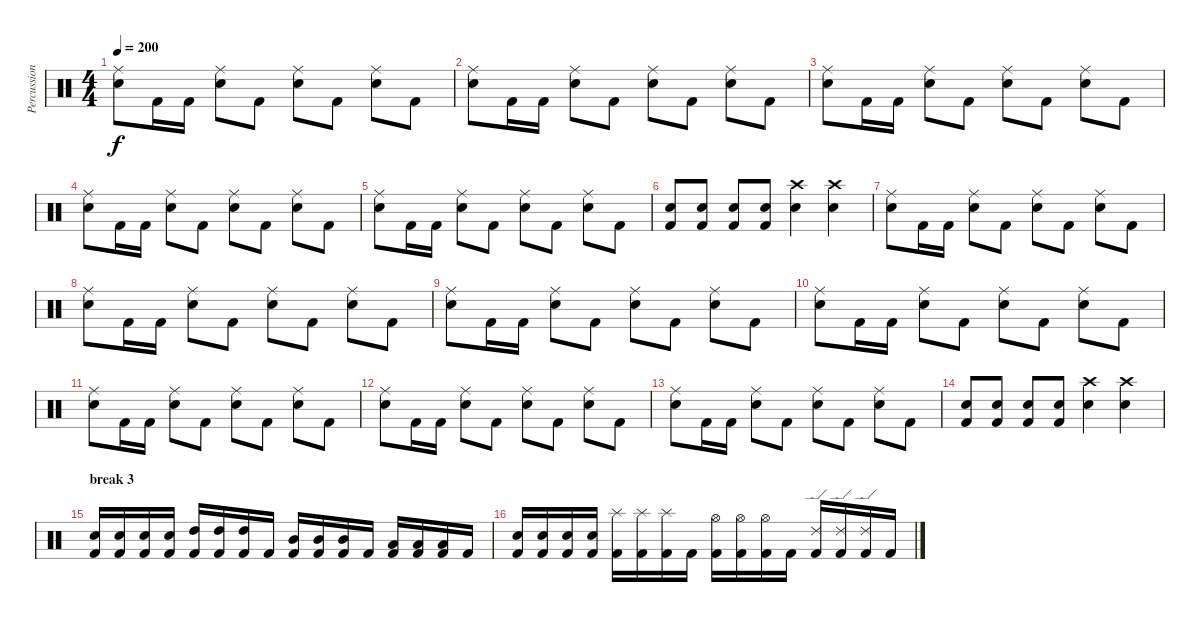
\track ("Percussions" "Percussion") {instrument percussion}
\staff {score}
\articulation defaults
\ts (4 4)
\tempo 200
\clef neutral
\ks c
("Ride (middle)" "Electric Snare (hit)").8{dy f} "Kick (hit) 2".16 "Kick (hit) 2".16 ("Ride (middle)" "Electric Snare (hit)").8 "Kick (hit) 2".8 ("Ride (middle)" "Electric Snare (hit)").8 "Kick (hit) 2".8 ("Ride (middle)" "Electric Snare (hit)").8 "Kick (hit) 2".8 |
("Ride (middle)" "Electric Snare (hit)").8 "Kick (hit) 2".16 "Kick (hit) 2".16 ("Ride (middle)" "Electric Snare (hit)").8 "Kick (hit) 2".8 ("Ride (middle)" "Electric Snare (hit)").8 "Kick (hit) 2".8 ("Ride (middle)" "Electric Snare (hit)").8 "Kick (hit) 2".8 |
("Ride (middle)" "Electric Snare (hit)").8 "Kick (hit) 2".16 "Kick (hit) 2".16 ("Ride (middle)" "Electric Snare (hit)").8 "Kick (hit) 2".8 ("Ride (middle)" "Electric Snare (hit)").8 "Kick (hit) 2".8 ("Ride (middle)" "Electric Snare (hit)").8 "Kick (hit) 2".8 |
("Ride (middle)" "Electric Snare (hit)").8 "Kick (hit) 2".16 "Kick (hit) 2".16 ("Ride (middle)" "Electric Snare (hit)").8 "Kick (hit) 2".8 ("Ride (middle)" "Electric Snare (hit)").8 "Kick (hit) 2".8 ("Ride (middle)" "Electric Snare (hit)").8 "Kick (hit) 2".8 |
("Ride (middle)" "Electric Snare (hit)").8 "Kick (hit) 2".16 "Kick (hit) 2".16 ("Ride (middle)" "Electric Snare (hit)").8 "Kick (hit) 2".8 ("Ride (middle)" "Electric Snare (hit)").8 "Kick (hit) 2".8 ("Ride (middle)" "Electric Snare (hit)").8 "Kick (hit) 2".8 |
("Electric Snare (hit)" "Kick (hit) 2").8 ("Electric Snare (hit)" "Kick (hit) 2").8 ("Electric Snare (hit)" "Kick (hit) 2").8 ("Electric Snare (hit)" "Kick (hit) 2").8 ("Crash high (hit)" "Electric Snare (hit)").4 ("Crash high (hit)" "Electric Snare (hit)").4 |
("Ride (middle)" "Electric Snare (hit)").8 "Kick (hit) 2".16 "Kick (hit) 2".16 ("Ride (middle)" "Electric Snare (hit)").8 "Kick (hit) 2".8 ("Ride (middle)" "Electric Snare (hit)").8 "Kick (hit) 2".8 ("Ride (middle)" "Electric Snare (hit)").8 "Kick (hit) 2".8 |
("Ride (middle)" "Electric Snare (hit)").8 "Kick (hit) 2".16 "Kick (hit) 2".16 ("Ride (middle)" "Electric Snare (hit)").8 "Kick (hit) 2".8 ("Ride (middle)" "Electric Snare (hit)").8 "Kick (hit) 2".8 ("Ride (middle)" "Electric Snare (hit)").8 "Kick (hit) 2".8 |
("Ride (middle)" "Electric Snare (hit)").8 "Kick (hit) 2".16 "Kick (hit) 2".16 ("Ride (middle)" "Electric Snare (hit)").8 "Kick (hit) 2".8 ("Ride (middle)" "Electric Snare (hit)").8 "Kick (hit) 2".8 ("Ride (middle)" "Electric Snare (hit)").8 "Kick (hit) 2".8 |
("Ride (middle)" "Electric Snare (hit)").8 "Kick (hit) 2".16 "Kick (hit) 2".16 ("Ride (middle)" "Electric Snare (hit)").8 "Kick (hit) 2".8 ("Ride (middle)" "Electric Snare (hit)").8 "Kick (hit) 2".8 ("Ride (middle)" "Electric Snare (hit)").8 "Kick (hit) 2".8 |
("Ride (middle)" "Electric Snare (hit)").8 "Kick (hit) 2".16 "Kick (hit) 2".16 ("Ride (middle)" "Electric Snare (hit)").8 "Kick (hit) 2".8 ("Ride (middle)" "Electric Snare (hit)").8 "Kick (hit) 2".8 ("Ride (middle)" "Electric Snare (hit)").8 "Kick (hit) 2".8 |
("Ride (middle)" "Electric Snare (hit)").8 "Kick (hit) 2".16 "Kick (hit) 2".16 ("Ride (middle)" "Electric Snare (hit)").8 "Kick (hit) 2".8 ("Ride (middle)" "Electric Snare (hit)").8 "Kick (hit) 2".8 ("Ride (middle)" "Electric Snare (hit)").8 "Kick (hit) 2".8 |
("Ride (middle)" "Electric Snare (hit)").8 "Kick (hit) 2".16 "Kick (hit) 2".16 ("Ride (middle)" "Electric Snare (hit)").8 "Kick (hit) 2".8 ("Ride (middle)" "Electric Snare (hit)").8 "Kick (hit) 2".8 ("Ride (middle)" "Electric Snare (hit)").8 "Kick (hit) 2".8 |
("Electric Snare (hit)" "Kick (hit) 2").8 ("Electric Snare (hit)" "Kick (hit) 2").8 ("Electric Snare (hit)" "Kick (hit) 2").8 ("Electric Snare (hit)" "Kick (hit) 2").8 ("Crash high (hit)" "Electric Snare (hit)").4 ("Crash high (hit)" "Electric Snare (hit)").4 |
\section ("" "break 3")
("Electric Snare (hit)" "Kick (hit) 2").16 ("Electric Snare (hit)" "Kick (hit) 2").16 ("Electric Snare (hit)" "Kick (hit) 2").16 ("Electric Snare (hit)" "Kick (hit) 2").16 ("High Tom (hit)" "Kick (hit) 2").16 ("High Tom (hit)" "Kick (hit) 2").16 ("High Tom (hit)" "Kick (hit) 2").16 "Kick (hit) 2".16 ("Mid Tom (hit)" "Kick (hit) 2").16 ("Mid Tom (hit)" "Kick (hit) 2").16 ("Mid Tom (hit)" "Kick (hit) 2").16 "Kick (hit) 2".16 ("Low Tom (hit)" "Kick (hit) 2").16 ("Low Tom (hit)" "Kick (hit) 2").16 ("Low Tom (hit)" "Kick (hit) 2").16 "Kick (hit) 2".16 |
("Electric Snare (hit)" "Kick (hit) 2").16 ("Electric Snare (hit)" "Kick (hit) 2").16 ("Electric Snare (hit)" "Kick (hit) 2").16 ("Electric Snare (hit)" "Kick (hit) 2").16 ("Splash (hit)" "Kick (hit) 2").16 ("Splash (hit)" "Kick (hit) 2").16 ("Splash (hit)" "Kick (hit) 2").16 "Kick (hit) 2".16 ("Hi-Hat (open)" "Kick (hit) 2").16 ("Hi-Hat (open)" "Kick (hit) 2").16 ("Hi-Hat (open)" "Kick (hit) 2").16 "Kick (hit) 2".16 ("Ride (edge) 2" "Kick (hit) 2").16 ("Ride (edge) 2" "Kick (hit) 2").16 ("Ride (edge) 2" "Kick (hit) 2").16 "Kick (hit) 2".16
